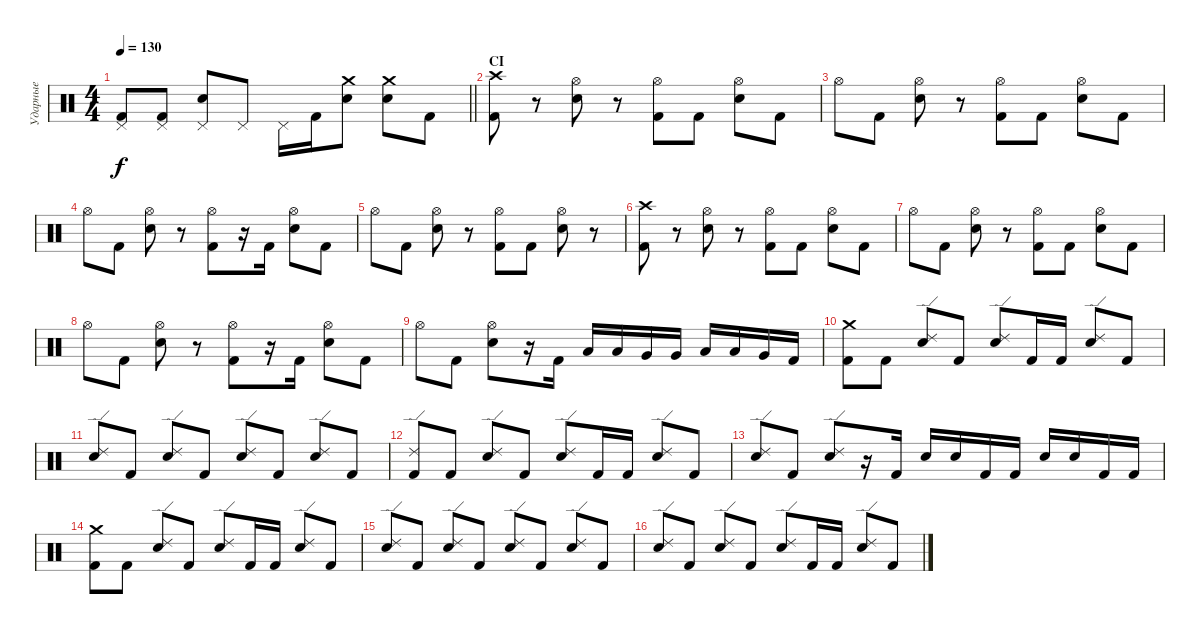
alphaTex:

\track ("Ударные" "Ударные") {instrument percussion}
\staff {score}
\articulation defaults
\ts (4 4)
\tempo 130
\clef neutral
\barLineRight lightlight
\ks c
("Pedal Hi-Hat (hit)" "Kick (hit) 2").8{dy f} ("Pedal Hi-Hat (hit)" "Kick (hit) 2").8 ("Pedal Hi-Hat (hit)" "Electric Snare (hit)").8 "Pedal Hi-Hat (hit)".8 "Pedal Hi-Hat (hit)".16 "Kick (hit) 2".16 ("Crash medium (hit)" "Electric Snare (hit)").8 ("Crash medium (hit)" "Electric Snare (hit)").8 "Kick (hit) 2".8 |
\section ("" "CI")
("Crash high (hit)" "Kick (hit) 2").8 r.8 ("Hi-Hat (open)" "Electric Snare (hit)").8 r.8 ("Hi-Hat (open)" "Kick (hit) 2").8 "Kick (hit) 2".8 ("Hi-Hat (open)" "Electric Snare (hit)").8 "Kick (hit) 2".8 |
"Hi-Hat (open)".8 "Kick (hit) 2".8 ("Hi-Hat (open)" "Electric Snare (hit)").8 r.8 ("Hi-Hat (open)" "Kick (hit) 2").8 "Kick (hit) 2".8 ("Hi-Hat (open)" "Electric Snare (hit)").8 "Kick (hit) 2".8 |
"Hi-Hat (open)".8 "Kick (hit) 2".8 ("Hi-Hat (open)" "Electric Snare (hit)").8 r.8 ("Hi-Hat (open)" "Kick (hit) 2").8 r.16 "Kick (hit) 2".16 ("Hi-Hat (open)" "Electric Snare (hit)").8 "Kick (hit) 2".8 |
"Hi-Hat (open)".8 "Kick (hit) 2".8 ("Hi-Hat (open)" "Electric Snare (hit)").8 r.8 ("Hi-Hat (open)" "Kick (hit) 2").8 "Kick (hit) 2".8 ("Hi-Hat (open)" "Electric Snare (hit)").8 r.8 |
("Crash high (hit)" "Kick (hit) 2").8 r.8 ("Hi-Hat (open)" "Electric Snare (hit)").8 r.8 ("Hi-Hat (open)" "Kick (hit) 2").8 "Kick (hit) 2".8 ("Hi-Hat (open)" "Electric Snare (hit)").8 "Kick (hit) 2".8 |
"Hi-Hat (open)".8 "Kick (hit) 2".8 ("Hi-Hat (open)" "Electric Snare (hit)").8 r.8 ("Hi-Hat (open)" "Kick (hit) 2").8 "Kick (hit) 2".8 ("Hi-Hat (open)" "Electric Snare (hit)").8 "Kick (hit) 2".8 |
"Hi-Hat (open)".8 "Kick (hit) 2".8 ("Hi-Hat (open)" "Electric Snare (hit)").8 r.8 ("Hi-Hat (open)" "Kick (hit) 2").8 r.16 "Kick (hit) 2".16 ("Hi-Hat (open)" "Electric Snare (hit)").8 "Kick (hit) 2".8 |
"Hi-Hat (open)".8 "Kick (hit) 2".8 ("Hi-Hat (open)" "Electric Snare (hit)").8 r.16 "Kick (hit) 2".16 "Low Tom (hit)".16 "Low Tom (hit)".16 "Very Low Tom (hit)".16 "Very Low Tom (hit)".16 "Low Tom (hit)".16 "Low Tom (hit)".16 "Very Low Tom (hit)".16 "Kick (hit) 2".16 |
("Crash medium (hit)" "Kick (hit) 2").8 "Kick (hit) 2".8 ("Ride (edge) 2" "Electric Snare (hit)").8 "Kick (hit) 2".8 ("Ride (edge) 2" "Electric Snare (hit)").8 "Kick (hit) 2".16 "Kick (hit) 2".16 ("Ride (edge) 2" "Electric Snare (hit)").8 "Kick (hit) 2".8 |
("Ride (edge) 2" "Electric Snare (hit)").8 "Kick (hit) 2".8 ("Ride (edge) 2" "Electric Snare (hit)").8 "Kick (hit) 2".8 ("Ride (edge) 2" "Electric Snare (hit)").8 "Kick (hit) 2".8 ("Ride (edge) 2" "Electric Snare (hit)").8 "Kick (hit) 2".8 |
("Ride (edge) 2" "Kick (hit) 2").8 "Kick (hit) 2".8 ("Ride (edge) 2" "Electric Snare (hit)").8 "Kick (hit) 2".8 ("Ride (edge) 2" "Electric Snare (hit)").8 "Kick (hit) 2".16 "Kick (hit) 2".16 ("Ride (edge) 2" "Electric Snare (hit)").8 "Kick (hit) 2".8 |
("Ride (edge) 2" "Electric Snare (hit)").8 "Kick (hit) 2".8 ("Ride (edge) 2" "Electric Snare (hit)").8 r.16 "Kick (hit) 2".16 "Electric Snare (hit)".16 "Electric Snare (hit)".16 "Kick (hit) 2".16 "Kick (hit) 2".16 "Electric Snare (hit)".16 "Electric Snare (hit)".16 "Kick (hit) 2".16 "Kick (hit) 2".16 |
("Crash medium (hit)" "Kick (hit) 2").8 "Kick (hit) 2".8 ("Ride (edge) 2" "Electric Snare (hit)").8 "Kick (hit) 2".8 ("Ride (edge) 2" "Electric Snare (hit)").8 "Kick (hit) 2".16 "Kick (hit) 2".16 ("Ride (edge) 2" "Electric Snare (hit)").8 "Kick (hit) 2".8 |
("Ride (edge) 2" "Electric Snare (hit)").8 "Kick (hit) 2".8 ("Ride (edge) 2" "Electric Snare (hit)").8 "Kick (hit) 2".8 ("Ride (edge) 2" "Electric Snare (hit)").8 "Kick (hit) 2".8 ("Ride (edge) 2" "Electric Snare (hit)").8 "Kick (hit) 2".8 |
("Ride (edge) 2" "Electric Snare (hit)").8 "Kick (hit) 2".8 ("Ride (edge) 2" "Electric Snare (hit)").8 "Kick (hit) 2".8 ("Ride (edge) 2" "Electric Snare (hit)").8 "Kick (hit) 2".16 "Kick (hit) 2".16 ("Ride (edge) 2" "Electric Snare (hit)").8 "Kick (hit) 2".8
